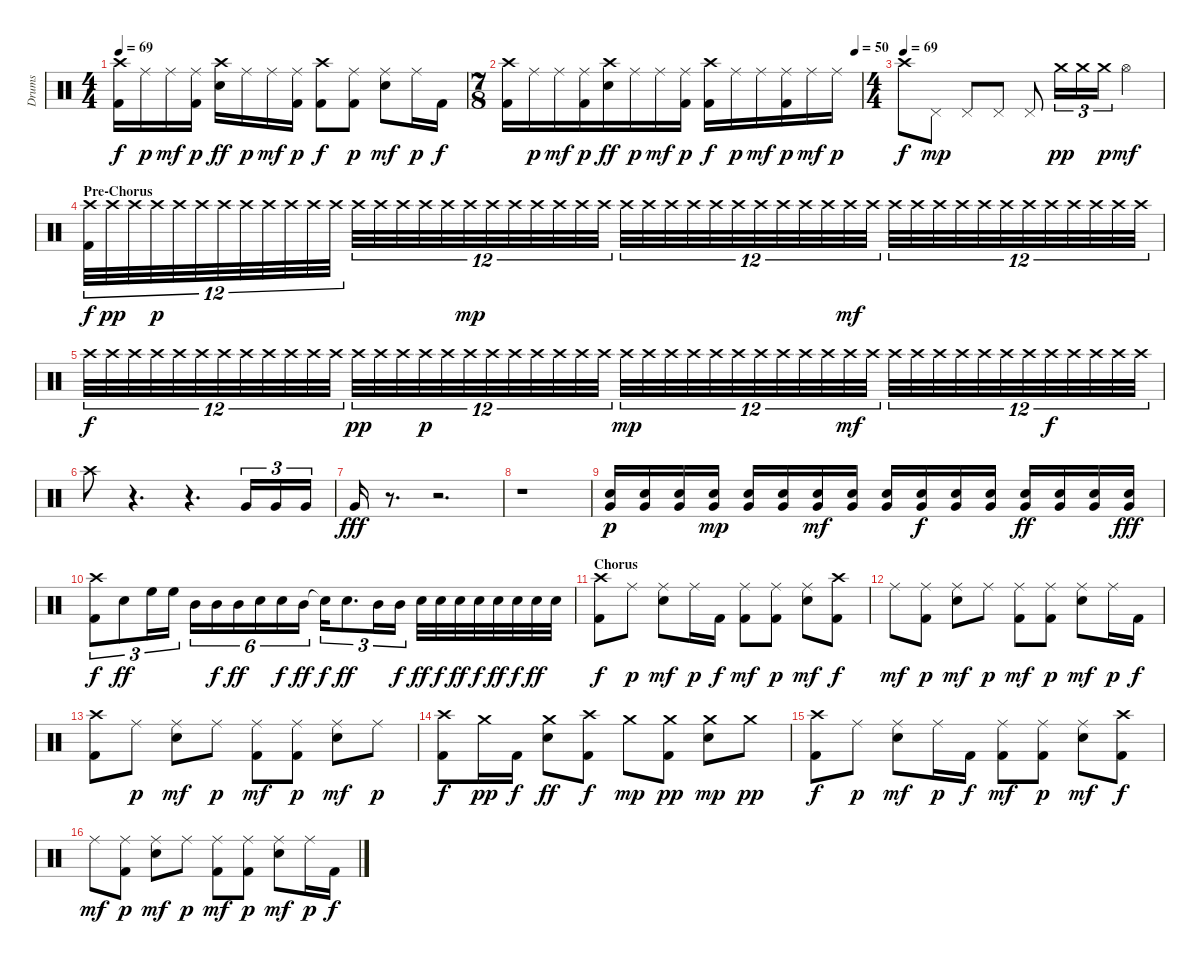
\track ("Drums" "Drums") {instrument percussion}
\staff {score}
\articulation defaults
\ts (4 4)
\tempo 69
\clef neutral
\ks c
("Crash high (hit)" "Kick (hit) 2").16{dy f} "Ride (middle)".16{dy p} "Ride (middle)".16{dy mf} ("Ride (middle)" "Kick (hit) 2").16{dy p} ("Crash high (hit)" "Snare (hit) 2").16{dy ff} "Ride (middle)".16{dy p} "Ride (middle)".16{dy mf} ("Ride (middle)" "Kick (hit) 2").16{dy p} ("Crash high (hit)" "Kick (hit) 2").8{dy f} ("Ride (middle)" "Kick (hit) 2").8{dy p} ("Snare (hit) 2" "Ride (middle)").8{dy mf} "Ride (middle)".16{dy p} "Kick (hit) 2".16{dy f} |
\ts (7 8)
\tempo (50 0.9821428571428571)
("Crash high (hit)" "Kick (hit) 2").16 "Ride (middle)".16{dy p} "Ride (middle)".16{dy mf} ("Ride (middle)" "Kick (hit) 2").16{dy p} ("Crash high (hit)" "Snare (hit) 2").16{dy ff} "Ride (middle)".16{dy p} "Ride (middle)".16{dy mf} ("Ride (middle)" "Kick (hit) 2").16{dy p} ("Crash high (hit)" "Kick (hit) 2").16{dy f} "Ride (middle)".16{dy p} "Ride (middle)".16{dy mf} ("Ride (middle)" "Kick (hit) 2").16{dy p} "Ride (middle)".16{dy mf} "Ride (middle)".16{dy p} |
\ts (4 4)
\tempo (69)
"Crash high (hit)".8{dy f} "Pedal Hi-Hat (hit)".8{dy mp} "Pedal Hi-Hat (hit)".8 "Pedal Hi-Hat (hit)".8 "Pedal Hi-Hat (hit)".8 "Crash medium (hit)".16{tu (3 2) dy pp} "Crash medium (hit)".16{tu (3 2)} "Crash medium (hit)".16{tu (3 2) dy p} "Hi-Hat (open)".4{dy mf} |
\section ("" "Pre-Chorus")
("Crash high (hit)" "Kick (hit) 2").32{tu (12 8) dy f} "Crash high (hit)".32{tu (12 8) dy pp} "Crash high (hit)".32{tu (12 8)} "Crash high (hit)".32{tu (12 8) dy p} "Crash high (hit)".32{tu (12 8)} "Crash high (hit)".32{tu (12 8)} "Crash high (hit)".32{tu (12 8)} "Crash high (hit)".32{tu (12 8)} "Crash high (hit)".32{tu (12 8)} "Crash high (hit)".32{tu (12 8)} "Crash high (hit)".32{tu (12 8)} "Crash high (hit)".32{tu (12 8)} "Crash high (hit)".32{tu (12 8)} "Crash high (hit)".32{tu (12 8)} "Crash high (hit)".32{tu (12 8)} "Crash high (hit)".32{tu (12 8)} "Crash high (hit)".32{tu (12 8)} "Crash high (hit)".32{tu (12 8) dy mp} "Crash high (hit)".32{tu (12 8)} "Crash high (hit)".32{tu (12 8)} "Crash high (hit)".32{tu (12 8)} "Crash high (hit)".32{tu (12 8)} "Crash high (hit)".32{tu (12 8)} "Crash high (hit)".32{tu (12 8)} "Crash high (hit)".32{tu (12 8)} "Crash high (hit)".32{tu (12 8)} "Crash high (hit)".32{tu (12 8)} "Crash high (hit)".32{tu (12 8)} "Crash high (hit)".32{tu (12 8)} "Crash high (hit)".32{tu (12 8)} "Crash high (hit)".32{tu (12 8)} "Crash high (hit)".32{tu (12 8)} "Crash high (hit)".32{tu (12 8)} "Crash high (hit)".32{tu (12 8)} "Crash high (hit)".32{tu (12 8) dy mf} "Crash high (hit)".32{tu (12 8)} "Crash high (hit)".32{tu (12 8)} "Crash high (hit)".32{tu (12 8)} "Crash high (hit)".32{tu (12 8)} "Crash high (hit)".32{tu (12 8)} "Crash high (hit)".32{tu (12 8)} "Crash high (hit)".32{tu (12 8)} "Crash high (hit)".32{tu (12 8)} "Crash high (hit)".32{tu (12 8)} "Crash high (hit)".32{tu (12 8)} "Crash high (hit)".32{tu (12 8)} "Crash high (hit)".32{tu (12 8)} "Crash high (hit)".32{tu (12 8)} |
"Crash high (hit)".32{tu (12 8) dy f} "Crash high (hit)".32{tu (12 8)} "Crash high (hit)".32{tu (12 8)} "Crash high (hit)".32{tu (12 8)} "Crash high (hit)".32{tu (12 8)} "Crash high (hit)".32{tu (12 8)} "Crash high (hit)".32{tu (12 8)} "Crash high (hit)".32{tu (12 8)} "Crash high (hit)".32{tu (12 8)} "Crash high (hit)".32{tu (12 8)} "Crash high (hit)".32{tu (12 8)} "Crash high (hit)".32{tu (12 8)} "Crash high (hit)".32{tu (12 8) dy pp} "Crash high (hit)".32{tu (12 8)} "Crash high (hit)".32{tu (12 8)} "Crash high (hit)".32{tu (12 8) dy p} "Crash high (hit)".32{tu (12 8)} "Crash high (hit)".32{tu (12 8)} "Crash high (hit)".32{tu (12 8)} "Crash high (hit)".32{tu (12 8)} "Crash high (hit)".32{tu (12 8)} "Crash high (hit)".32{tu (12 8)} "Crash high (hit)".32{tu (12 8)} "Crash high (hit)".32{tu (12 8)} "Crash high (hit)".32{tu (12 8) dy mp} "Crash high (hit)".32{tu (12 8)} "Crash high (hit)".32{tu (12 8)} "Crash high (hit)".32{tu (12 8)} "Crash high (hit)".32{tu (12 8)} "Crash high (hit)".32{tu (12 8)} "Crash high (hit)".32{tu (12 8)} "Crash high (hit)".32{tu (12 8)} "Crash high (hit)".32{tu (12 8)} "Crash high (hit)".32{tu (12 8)} "Crash high (hit)".32{tu (12 8) dy mf} "Crash high (hit)".32{tu (12 8)} "Crash high (hit)".32{tu (12 8)} "Crash high (hit)".32{tu (12 8)} "Crash high (hit)".32{tu (12 8)} "Crash high (hit)".32{tu (12 8)} "Crash high (hit)".32{tu (12 8)} "Crash high (hit)".32{tu (12 8)} "Crash high (hit)".32{tu (12 8)} "Crash high (hit)".32{tu (12 8) dy f} "Crash high (hit)".32{tu (12 8)} "Crash high (hit)".32{tu (12 8)} "Crash high (hit)".32{tu (12 8)} "Crash high (hit)".32{tu (12 8)} |
"Crash high (hit)".8 r.4{d} r.4{d} "Very Low Tom (hit)".16{tu (3 2)} "Very Low Tom (hit)".16{tu (3 2)} "Very Low Tom (hit)".16{tu (3 2)} |
"Very Low Tom (hit)".16{dy fff} r.8{d} r.2{d} |
r.1 |
("Snare (hit) 2" "Very Low Tom (hit)").16{dy p} ("Snare (hit) 2" "Very Low Tom (hit)").16 ("Snare (hit) 2" "Very Low Tom (hit)").16 ("Snare (hit) 2" "Very Low Tom (hit)").16{dy mp} ("Snare (hit) 2" "Very Low Tom (hit)").16 ("Snare (hit) 2" "Very Low Tom (hit)").16 ("Snare (hit) 2" "Very Low Tom (hit)").16{dy mf} ("Snare (hit) 2" "Very Low Tom (hit)").16 ("Snare (hit) 2" "Very Low Tom (hit)").16 ("Snare (hit) 2" "Very Low Tom (hit)").16{dy f} ("Snare (hit) 2" "Very Low Tom (hit)").16 ("Snare (hit) 2" "Very Low Tom (hit)").16 ("Snare (hit) 2" "Very Low Tom (hit)").16{dy ff} ("Snare (hit) 2" "Very Low Tom (hit)").16 ("Snare (hit) 2" "Very Low Tom (hit)").16 ("Snare (hit) 2" "Very Low Tom (hit)").16{dy fff} |
("Crash high (hit)" "Kick (hit) 2").8{tu (3 2) dy f} "Snare (hit) 2".8{tu (3 2) dy ff} "High Floor Tom (hit)".16{tu (3 2)} "High Floor Tom (hit)".16{tu (3 2)} "Mid Tom (hit)".16{tu (6 4)} "Mid Tom (hit)".16{tu (6 4) dy f} "Mid Tom (hit)".16{tu (6 4) dy ff} "Snare (hit) 2".16{tu (6 4)} "Snare (hit) 2".16{tu (6 4) dy f} "Mid Tom (hit)".16{tu (6 4) dy ff} "Snare (hit)"{t}.16{tu (3 2) dy f} "Snare (hit) 2".8{d tu (3 2) dy ff} "Mid Tom (hit)".16{tu (3 2)} "Mid Tom (hit)".16{tu (3 2) dy f} "Snare (hit) 2".32{dy ff} "Snare (hit) 2".32{dy f} "Snare (hit) 2".32{dy ff} "Snare (hit) 2".32{dy f} "Snare (hit) 2".32{dy ff} "Snare (hit) 2".32{dy f} "Snare (hit) 2".32{dy ff} "Snare (hit) 2".32 |
\section ("" "Chorus")
("Crash high (hit)" "Kick (hit) 2").8{dy f} "Ride (middle)".8{dy p} ("Snare (hit) 2" "Ride (middle)").8{dy mf} "Ride (middle)".16{dy p} "Kick (hit) 2".16{dy f} ("Ride (middle)" "Kick (hit) 2").8{dy mf} ("Kick (hit) 2" "Ride (middle)").8{dy p} ("Snare (hit) 2" "Ride (middle)").8{dy mf} ("Kick (hit) 2" "Crash high (hit)").8{dy f} |
"Ride (middle)".8{dy mf} ("Kick (hit) 2" "Ride (middle)").8{dy p} ("Snare (hit) 2" "Ride (middle)").8{dy mf} "Ride (middle)".8{dy p} ("Ride (middle)" "Kick (hit) 2").8{dy mf} ("Kick (hit) 2" "Ride (middle)").8{dy p} ("Snare (hit) 2" "Ride (middle)").8{dy mf} "Ride (middle)".16{dy p} "Kick (hit) 2".16{dy f} |
("Crash high (hit)" "Kick (hit) 2").8 "Ride (middle)".8{dy p} ("Snare (hit) 2" "Ride (middle)").8{dy mf} "Ride (middle)".8{dy p} ("Ride (middle)" "Kick (hit) 2").8{dy mf} ("Kick (hit) 2" "Ride (middle)").8{dy p} ("Snare (hit) 2" "Ride (middle)").8{dy mf} "Ride (middle)".8{dy p} |
("Crash high (hit)" "Kick (hit) 2").8{dy f} "Crash medium (hit)".16{dy pp} "Kick (hit) 2".16{dy f} ("Crash medium (hit)" "Snare (hit) 2").8{dy ff} ("Crash high (hit)" "Kick (hit) 2").8{dy f} "Crash medium (hit)".8{dy mp} ("Crash medium (hit)" "Kick (hit) 2").8{dy pp} ("Snare (hit) 2" "Crash medium (hit)").8{dy mp} "Crash medium (hit)".8{dy pp} |
("Crash high (hit)" "Kick (hit) 2").8{dy f} "Ride (middle)".8{dy p} ("Snare (hit) 2" "Ride (middle)").8{dy mf} "Ride (middle)".16{dy p} "Kick (hit) 2".16{dy f} ("Ride (middle)" "Kick (hit) 2").8{dy mf} ("Kick (hit) 2" "Ride (middle)").8{dy p} ("Snare (hit) 2" "Ride (middle)").8{dy mf} ("Kick (hit) 2" "Crash high (hit)").8{dy f} |
"Ride (middle)".8{dy mf} ("Kick (hit) 2" "Ride (middle)").8{dy p} ("Snare (hit) 2" "Ride (middle)").8{dy mf} "Ride (middle)".8{dy p} ("Ride (middle)" "Kick (hit) 2").8{dy mf} ("Kick (hit) 2" "Ride (middle)").8{dy p} ("Snare (hit) 2" "Ride (middle)").8{dy mf} "Ride (middle)".16{dy p} "Kick (hit) 2".16{dy f}
